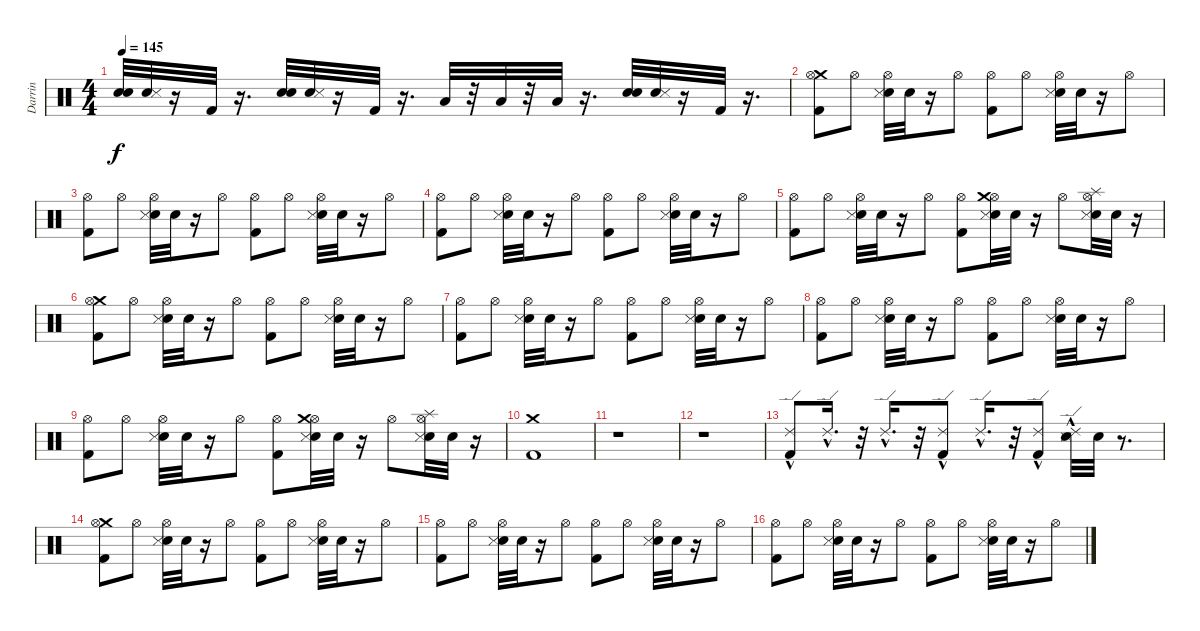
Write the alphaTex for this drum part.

\track ("Darrin" "Darrin") {instrument percussion}
\staff {score}
\articulation defaults
\ts (4 4)
\tempo 145
\clef neutral
\ks c
("Snare (hit) 2" "Snare (hit) 2").32{dy f} ("Snare (hit) 2" "Snare (side stick) 3").32 r.16 "Kick (hit) 2".32 r.16{d} ("Snare (hit) 2" "Snare (hit) 2").32 ("Snare (hit) 2" "Snare (side stick) 3").32 r.16 "Kick (hit) 2".32 r.16{d} "Low Floor Tom (hit)".32 r.32 "Low Floor Tom (hit)".32 r.32 "Low Floor Tom (hit)".32 r.16{d} ("Snare (hit) 2" "Snare (hit) 2").32 ("Snare (hit) 2" "Snare (side stick) 3").32 r.16 "Kick (hit) 2".32 r.16{d} |
("Crash medium (hit)" "Hi-Hat (open)" "Kick (hit) 2").8 "Hi-Hat (open)".8 ("Hi-Hat (open)" "Snare (hit) 2" "Snare (side stick) 3").32 "Snare (hit) 2".32 r.16 "Hi-Hat (open)".8 ("Hi-Hat (open)" "Kick (hit) 2").8 "Hi-Hat (open)".8 ("Hi-Hat (open)" "Snare (hit) 2" "Snare (side stick) 3").32 "Snare (hit) 2".32 r.16 "Hi-Hat (open)".8 |
("Kick (hit) 2" "Hi-Hat (open)").8 "Hi-Hat (open)".8 ("Snare (hit) 2" "Snare (side stick) 3" "Hi-Hat (open)").32 "Snare (hit) 2".32 r.16 "Hi-Hat (open)".8 ("Kick (hit) 2" "Hi-Hat (open)").8 "Hi-Hat (open)".8 ("Snare (hit) 2" "Snare (side stick) 3" "Hi-Hat (open)").32 "Snare (hit) 2".32 r.16 "Hi-Hat (open)".8 |
("Kick (hit) 2" "Hi-Hat (open)").8 "Hi-Hat (open)".8 ("Snare (hit) 2" "Snare (side stick) 3" "Hi-Hat (open)").32 "Snare (hit) 2".32 r.16 "Hi-Hat (open)".8 ("Kick (hit) 2" "Hi-Hat (open)").8 "Hi-Hat (open)".8 ("Snare (hit) 2" "Snare (side stick) 3" "Hi-Hat (open)").32 "Snare (hit) 2".32 r.16 "Hi-Hat (open)".8 |
("Kick (hit) 2" "Hi-Hat (open)").8 "Hi-Hat (open)".8 ("Snare (hit) 2" "Snare (side stick) 3" "Hi-Hat (open)").32 "Snare (hit) 2".32 r.16 "Hi-Hat (open)".8 ("Kick (hit) 2" "Hi-Hat (open)").8 ("Hi-Hat (open)" "Snare (hit) 2" "Snare (side stick) 3" "Crash medium (hit)").32 "Snare (hit) 2".32 r.16 "Hi-Hat (open)".8 ("Hi-Hat (open)" "Snare (hit) 2" "Snare (side stick) 3" "Splash (hit)").32 "Snare (hit) 2".32 r.16 |
("Kick (hit) 2" "Crash medium (hit)" "Hi-Hat (open)").8 "Hi-Hat (open)".8 ("Snare (hit) 2" "Snare (side stick) 3" "Hi-Hat (open)").32 "Snare (hit) 2".32 r.16 "Hi-Hat (open)".8 ("Kick (hit) 2" "Hi-Hat (open)").8 "Hi-Hat (open)".8 ("Snare (hit) 2" "Snare (side stick) 3" "Hi-Hat (open)").32 "Snare (hit) 2".32 r.16 "Hi-Hat (open)".8 |
("Kick (hit) 2" "Hi-Hat (open)").8 "Hi-Hat (open)".8 ("Snare (hit) 2" "Snare (side stick) 3" "Hi-Hat (open)").32 "Snare (hit) 2".32 r.16 "Hi-Hat (open)".8 ("Kick (hit) 2" "Hi-Hat (open)").8 "Hi-Hat (open)".8 ("Snare (hit) 2" "Snare (side stick) 3" "Hi-Hat (open)").32 "Snare (hit) 2".32 r.16 "Hi-Hat (open)".8 |
("Kick (hit) 2" "Hi-Hat (open)").8 "Hi-Hat (open)".8 ("Snare (hit) 2" "Snare (side stick) 3" "Hi-Hat (open)").32 "Snare (hit) 2".32 r.16 "Hi-Hat (open)".8 ("Kick (hit) 2" "Hi-Hat (open)").8 "Hi-Hat (open)".8 ("Snare (hit) 2" "Snare (side stick) 3" "Hi-Hat (open)").32 "Snare (hit) 2".32 r.16 "Hi-Hat (open)".8 |
("Kick (hit) 2" "Hi-Hat (open)").8 "Hi-Hat (open)".8 ("Snare (hit) 2" "Snare (side stick) 3" "Hi-Hat (open)").32 "Snare (hit) 2".32 r.16 "Hi-Hat (open)".8 ("Kick (hit) 2" "Hi-Hat (open)").8 ("Hi-Hat (open)" "Snare (hit) 2" "Snare (side stick) 3" "Crash medium (hit)").32 "Snare (hit) 2".32 r.16 "Hi-Hat (open)".8 ("Hi-Hat (open)" "Splash (hit)" "Snare (hit) 2" "Snare (side stick) 3").32 "Snare (hit) 2".32 r.16 |
("Kick (hit) 2" "Crash medium (hit)").1 |
r.1 |
r.1 |
("Kick (hit) 2" "Ride (edge) 2"{hac}).8 "Ride (edge) 2"{hac}.16{d} r.32 "Ride (edge) 2"{hac}.16{d} r.32 ("Ride (edge) 2"{hac} "Kick (hit) 2").8 "Ride (edge) 2"{hac}.16{d} r.32 ("Ride (edge) 2"{hac} "Kick (hit) 2").8 ("Ride (edge) 2"{hac} "Snare (hit) 2" "Snare (side stick) 3").32 "Snare (hit) 2".32 r.8{d} |
("Kick (hit) 2" "Crash medium (hit)" "Hi-Hat (open)").8 "Hi-Hat (open)".8 ("Snare (hit) 2" "Snare (side stick) 3" "Hi-Hat (open)").32 "Snare (hit) 2".32 r.16 "Hi-Hat (open)".8 ("Kick (hit) 2" "Hi-Hat (open)").8 "Hi-Hat (open)".8 ("Snare (hit) 2" "Snare (side stick) 3" "Hi-Hat (open)").32 "Snare (hit) 2".32 r.16 "Hi-Hat (open)".8 |
("Kick (hit) 2" "Hi-Hat (open)").8 "Hi-Hat (open)".8 ("Snare (hit) 2" "Snare (side stick) 3" "Hi-Hat (open)").32 "Snare (hit) 2".32 r.16 "Hi-Hat (open)".8 ("Kick (hit) 2" "Hi-Hat (open)").8 "Hi-Hat (open)".8 ("Snare (hit) 2" "Snare (side stick) 3" "Hi-Hat (open)").32 "Snare (hit) 2".32 r.16 "Hi-Hat (open)".8 |
("Kick (hit) 2" "Hi-Hat (open)").8 "Hi-Hat (open)".8 ("Snare (hit) 2" "Snare (side stick) 3" "Hi-Hat (open)").32 "Snare (hit) 2".32 r.16 "Hi-Hat (open)".8 ("Kick (hit) 2" "Hi-Hat (open)").8 "Hi-Hat (open)".8 ("Snare (hit) 2" "Snare (side stick) 3" "Hi-Hat (open)").32 "Snare (hit) 2".32 r.16 "Hi-Hat (open)".8
